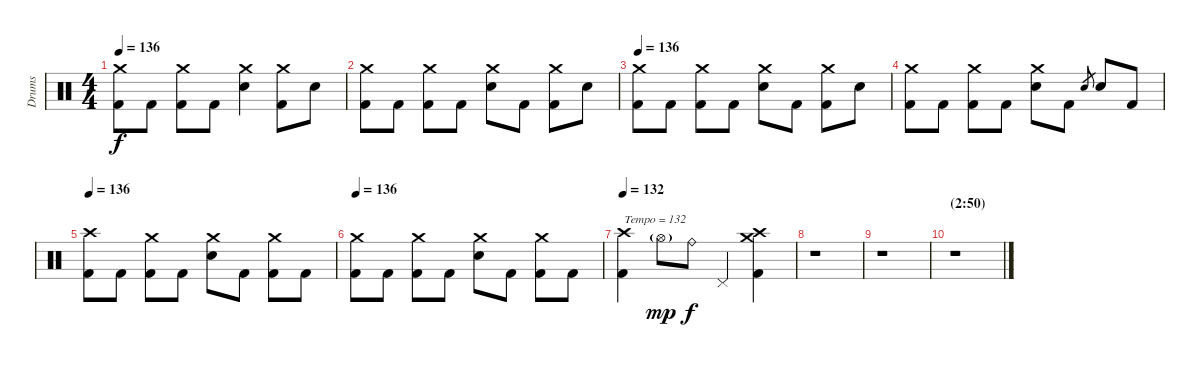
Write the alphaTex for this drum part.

\track ("Drums" "Drums") {instrument percussion}
\staff {score}
\articulation defaults
\ts (4 4)
\tempo 136
\clef neutral
\ks c
("Crash medium (hit)" "Kick (hit) 2").8{dy f} "Kick (hit) 2".8 ("Crash medium (hit)" "Kick (hit) 2").8 "Kick (hit) 2".8 ("Crash medium (hit)" "Snare (hit) 2").4 ("Crash medium (hit)" "Kick (hit) 2").8 "Snare (hit) 2".8 |
("Crash medium (hit)" "Kick (hit) 2").8 "Kick (hit) 2".8 ("Crash medium (hit)" "Kick (hit) 2").8 "Kick (hit) 2".8 ("Crash medium (hit)" "Snare (hit) 2").8 "Kick (hit) 2".8 ("Crash medium (hit)" "Kick (hit) 2").8 "Snare (hit) 2".8 |
\tempo 136
("Crash medium (hit)" "Kick (hit) 2").8 "Kick (hit) 2".8 ("Crash medium (hit)" "Kick (hit) 2").8 "Kick (hit) 2".8 ("Crash medium (hit)" "Snare (hit) 2").8 "Kick (hit) 2".8 ("Crash medium (hit)" "Kick (hit) 2").8 "Snare (hit) 2".8 |
("Crash medium (hit)" "Kick (hit) 2").8 "Kick (hit) 2".8 ("Crash medium (hit)" "Kick (hit) 2").8 "Kick (hit) 2".8 ("Crash medium (hit)" "Snare (hit) 2").8 "Kick (hit) 2".8 "Snare (hit) 2".8{gr} "Snare (hit) 2".8 "Kick (hit) 2".8 |
\tempo 136
("Crash high (hit)" "Kick (hit) 2").8 "Kick (hit) 2".8 ("Crash medium (hit)" "Kick (hit) 2").8 "Kick (hit) 2".8 ("Crash medium (hit)" "Snare (hit) 2").8 "Kick (hit) 2".8 ("Crash medium (hit)" "Kick (hit) 2").8 "Kick (hit) 2".8 |
\tempo 136
("Crash medium (hit)" "Kick (hit) 2").8 "Kick (hit) 2".8 ("Crash medium (hit)" "Kick (hit) 2").8 "Kick (hit) 2".8 ("Crash medium (hit)" "Snare (hit) 2").8 "Kick (hit) 2".8 ("Crash medium (hit)" "Kick (hit) 2").8 "Kick (hit) 2".8 |
\tempo 132
("Crash high (hit)" "Kick (hit) 2").4{txt "Tempo = 132"} "Hi-Hat (open)"{g}.8{dy mp} "Ride (bell)".8{dy f} "Pedal Hi-Hat (hit)".4 ("Crash high (hit)" "Crash medium (hit)" "Kick (hit) 2").4 |
r.1 |
r.1 |
\section ("" "(2:50)")
r.1
